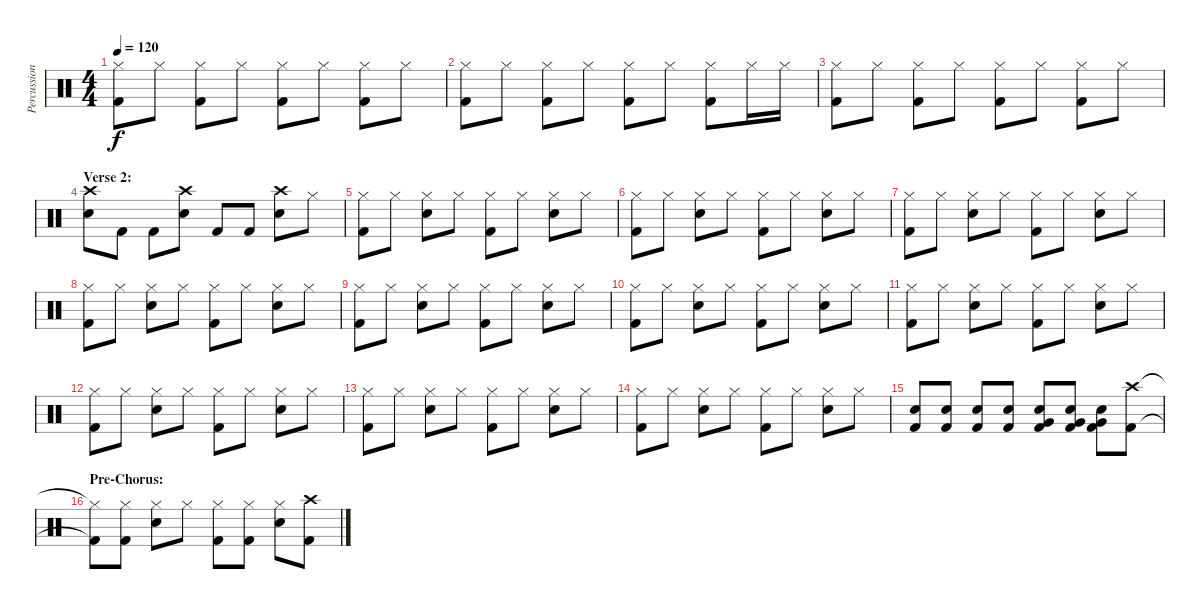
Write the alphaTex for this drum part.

\track ("Percussion" "Percussion") {instrument percussion}
\staff {score}
\articulation defaults
\ts (4 4)
\tempo 120
\clef neutral
\ks c
("Hi-Hat (closed)" "Kick (hit) 2").8{dy f} "Hi-Hat (closed)".8 ("Hi-Hat (closed)" "Kick (hit) 2").8 "Hi-Hat (closed)".8 ("Hi-Hat (closed)" "Kick (hit) 2").8 "Hi-Hat (closed)".8 ("Hi-Hat (closed)" "Kick (hit) 2").8 "Hi-Hat (closed)".8 |
("Hi-Hat (closed)" "Kick (hit) 2").8 "Hi-Hat (closed)".8 ("Hi-Hat (closed)" "Kick (hit) 2").8 "Hi-Hat (closed)".8 ("Hi-Hat (closed)" "Kick (hit) 2").8 "Hi-Hat (closed)".8 ("Hi-Hat (closed)" "Kick (hit) 2").8 "Hi-Hat (closed)".16 "Hi-Hat (closed)".16 |
("Hi-Hat (closed)" "Kick (hit) 2").8 "Hi-Hat (closed)".8 ("Hi-Hat (closed)" "Kick (hit) 2").8 "Hi-Hat (closed)".8 ("Hi-Hat (closed)" "Kick (hit) 2").8 "Hi-Hat (closed)".8 ("Hi-Hat (closed)" "Kick (hit) 2").8 "Hi-Hat (closed)".8 |
\section ("" "Verse 2:")
("Crash high (hit)" "Snare (hit) 2").8 "Kick (hit) 2".8 "Kick (hit) 2".8 ("Crash high (hit)" "Snare (hit) 2").8 "Kick (hit) 2".8 "Kick (hit) 2".8 ("Crash high (hit)" "Snare (hit) 2").8 "Hi-Hat (closed)".8 |
("Hi-Hat (closed)" "Kick (hit) 2").8 "Hi-Hat (closed)".8 ("Hi-Hat (closed)" "Snare (hit) 2").8 "Hi-Hat (closed)".8 ("Hi-Hat (closed)" "Kick (hit) 2").8 "Hi-Hat (closed)".8 ("Hi-Hat (closed)" "Snare (hit) 2").8 "Hi-Hat (closed)".8 |
("Hi-Hat (closed)" "Kick (hit) 2").8 "Hi-Hat (closed)".8 ("Hi-Hat (closed)" "Snare (hit) 2").8 "Hi-Hat (closed)".8 ("Hi-Hat (closed)" "Kick (hit) 2").8 "Hi-Hat (closed)".8 ("Hi-Hat (closed)" "Snare (hit) 2").8 "Hi-Hat (closed)".8 |
("Hi-Hat (closed)" "Kick (hit) 2").8 "Hi-Hat (closed)".8 ("Hi-Hat (closed)" "Snare (hit) 2").8 "Hi-Hat (closed)".8 ("Hi-Hat (closed)" "Kick (hit) 2").8 "Hi-Hat (closed)".8 ("Hi-Hat (closed)" "Snare (hit) 2").8 "Hi-Hat (closed)".8 |
("Hi-Hat (closed)" "Kick (hit) 2").8 "Hi-Hat (closed)".8 ("Hi-Hat (closed)" "Snare (hit) 2").8 "Hi-Hat (closed)".8 ("Hi-Hat (closed)" "Kick (hit) 2").8 "Hi-Hat (closed)".8 ("Hi-Hat (closed)" "Snare (hit) 2").8 "Hi-Hat (closed)".8 |
("Hi-Hat (closed)" "Kick (hit) 2").8 "Hi-Hat (closed)".8 ("Hi-Hat (closed)" "Snare (hit) 2").8 "Hi-Hat (closed)".8 ("Hi-Hat (closed)" "Kick (hit) 2").8 "Hi-Hat (closed)".8 ("Hi-Hat (closed)" "Snare (hit) 2").8 "Hi-Hat (closed)".8 |
("Hi-Hat (closed)" "Kick (hit) 2").8 "Hi-Hat (closed)".8 ("Hi-Hat (closed)" "Snare (hit) 2").8 "Hi-Hat (closed)".8 ("Hi-Hat (closed)" "Kick (hit) 2").8 "Hi-Hat (closed)".8 ("Hi-Hat (closed)" "Snare (hit) 2").8 "Hi-Hat (closed)".8 |
("Hi-Hat (closed)" "Kick (hit) 2").8 "Hi-Hat (closed)".8 ("Hi-Hat (closed)" "Snare (hit) 2").8 "Hi-Hat (closed)".8 ("Hi-Hat (closed)" "Kick (hit) 2").8 "Hi-Hat (closed)".8 ("Hi-Hat (closed)" "Snare (hit) 2").8 "Hi-Hat (closed)".8 |
("Hi-Hat (closed)" "Kick (hit) 2").8 "Hi-Hat (closed)".8 ("Hi-Hat (closed)" "Snare (hit) 2").8 "Hi-Hat (closed)".8 ("Hi-Hat (closed)" "Kick (hit) 2").8 "Hi-Hat (closed)".8 ("Hi-Hat (closed)" "Snare (hit) 2").8 "Hi-Hat (closed)".8 |
("Hi-Hat (closed)" "Kick (hit) 2").8 "Hi-Hat (closed)".8 ("Hi-Hat (closed)" "Snare (hit) 2").8 "Hi-Hat (closed)".8 ("Hi-Hat (closed)" "Kick (hit) 2").8 "Hi-Hat (closed)".8 ("Hi-Hat (closed)" "Snare (hit) 2").8 "Hi-Hat (closed)".8 |
("Hi-Hat (closed)" "Kick (hit) 2").8 "Hi-Hat (closed)".8 ("Hi-Hat (closed)" "Snare (hit) 2").8 "Hi-Hat (closed)".8 ("Hi-Hat (closed)" "Kick (hit) 2").8 "Hi-Hat (closed)".8 ("Hi-Hat (closed)" "Snare (hit) 2").8 "Hi-Hat (closed)".8 |
("Snare (hit) 2" "Kick (hit) 2").8 ("Snare (hit) 2" "Kick (hit) 2").8 ("Snare (hit) 2" "Kick (hit) 2").8 ("Snare (hit) 2" "Kick (hit) 2").8 ("Very Low Tom (hit)" "Snare (hit) 2" "Kick (hit) 2").8 ("Very Low Tom (hit)" "Snare (hit) 2" "Kick (hit) 2").8 ("Very Low Tom (hit)" "Snare (hit) 2" "Kick (hit) 2").8 ("Crash high (hit)" "Kick (hit) 2").8 |
\section ("" "Pre-Chorus:")
("Hi-Hat (closed)"{t} "Kick (hit) 2"{t}).8 ("Hi-Hat (closed)" "Kick (hit) 2").8 ("Hi-Hat (closed)" "Snare (hit) 2").8 "Hi-Hat (closed)".8 ("Hi-Hat (closed)" "Kick (hit) 2").8 ("Hi-Hat (closed)" "Kick (hit) 2").8 ("Hi-Hat (closed)" "Snare (hit) 2").8 ("Crash high (hit)" "Kick (hit) 2").8
